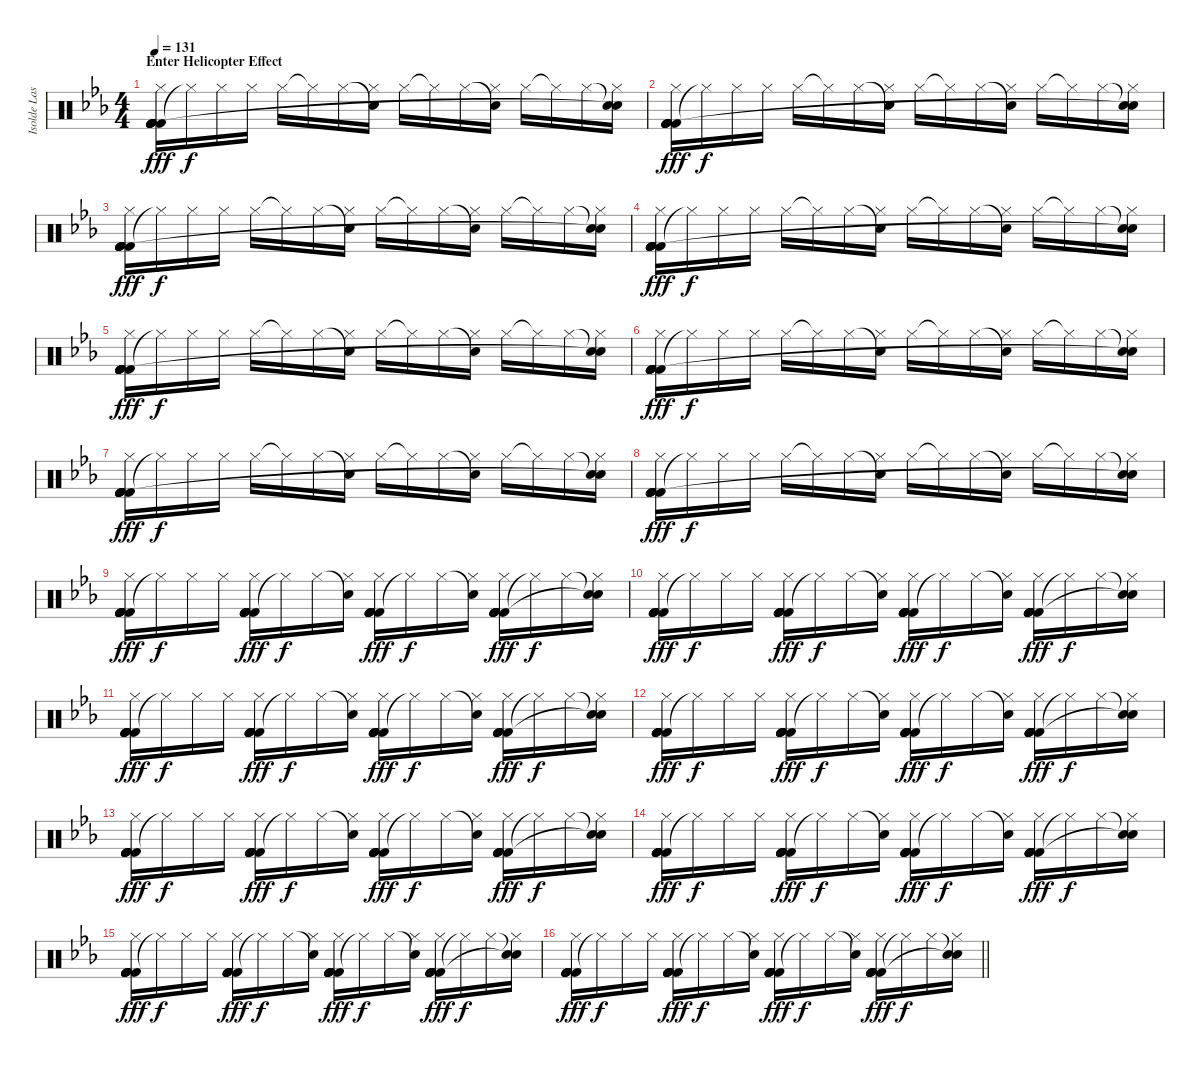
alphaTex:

\track ("Isolde Lasoen (Percussion)" "Isolde Las") {instrument percussion}
\staff {score}
\articulation defaults
\ts (4 4)
\section ("" "Enter Helicopter Effect")
\tempo 131
\clef neutral
\ks cminor
("Kick (hit) 2" "Kick (hit) 2" "Kick (hit) 2" "Kick (hit) 2" "Hi-Hat (closed)" "Kick (hit) 2").16{dy fff} "Hi-Hat (closed)"{t}.16{dy f} "Hi-Hat (closed)".16 "Hi-Hat (closed)".16 "Hi-Hat (closed)".16 "Hi-Hat (closed)"{t}.16 "Hi-Hat (closed)".16 ("Snare (hit)"{t} "Hi-Hat (closed)").16 "Hi-Hat (closed)".16 "Hi-Hat (closed)"{t}.16 "Hi-Hat (closed)".16 ("Snare (hit)"{t} "Hi-Hat (closed)").16 "Hi-Hat (closed)".16 "Hi-Hat (closed)"{t}.16 "Hi-Hat (closed)".16 ("Snare (hit)"{t} "Hi-Hat (closed)" "Snare (hit)"{t}).16 |
("Kick (hit) 2" "Kick (hit) 2" "Kick (hit) 2" "Kick (hit) 2" "Hi-Hat (closed)" "Kick (hit) 2").16{dy fff} "Hi-Hat (closed)"{t}.16{dy f} "Hi-Hat (closed)".16 "Hi-Hat (closed)".16 "Hi-Hat (closed)".16 "Hi-Hat (closed)"{t}.16 "Hi-Hat (closed)".16 ("Snare (hit)"{t} "Hi-Hat (closed)").16 "Hi-Hat (closed)".16 "Hi-Hat (closed)"{t}.16 "Hi-Hat (closed)".16 ("Snare (hit)"{t} "Hi-Hat (closed)").16 "Hi-Hat (closed)".16 "Hi-Hat (closed)"{t}.16 "Hi-Hat (closed)".16 ("Snare (hit)"{t} "Hi-Hat (closed)" "Snare (hit)"{t}).16 |
("Kick (hit) 2" "Kick (hit) 2" "Kick (hit) 2" "Kick (hit) 2" "Hi-Hat (closed)" "Kick (hit) 2").16{dy fff} "Hi-Hat (closed)"{t}.16{dy f} "Hi-Hat (closed)".16 "Hi-Hat (closed)".16 "Hi-Hat (closed)".16 "Hi-Hat (closed)"{t}.16 "Hi-Hat (closed)".16 ("Snare (hit)"{t} "Hi-Hat (closed)").16 "Hi-Hat (closed)".16 "Hi-Hat (closed)"{t}.16 "Hi-Hat (closed)".16 ("Snare (hit)"{t} "Hi-Hat (closed)").16 "Hi-Hat (closed)".16 "Hi-Hat (closed)"{t}.16 "Hi-Hat (closed)".16 ("Snare (hit)"{t} "Hi-Hat (closed)" "Snare (hit)"{t}).16 |
("Kick (hit) 2" "Kick (hit) 2" "Kick (hit) 2" "Kick (hit) 2" "Hi-Hat (closed)" "Kick (hit) 2").16{dy fff} "Hi-Hat (closed)"{t}.16{dy f} "Hi-Hat (closed)".16 "Hi-Hat (closed)".16 "Hi-Hat (closed)".16 "Hi-Hat (closed)"{t}.16 "Hi-Hat (closed)".16 ("Snare (hit)"{t} "Hi-Hat (closed)").16 "Hi-Hat (closed)".16 "Hi-Hat (closed)"{t}.16 "Hi-Hat (closed)".16 ("Snare (hit)"{t} "Hi-Hat (closed)").16 "Hi-Hat (closed)".16 "Hi-Hat (closed)"{t}.16 "Hi-Hat (closed)".16 ("Snare (hit)"{t} "Hi-Hat (closed)" "Snare (hit)"{t}).16 |
("Kick (hit) 2" "Kick (hit) 2" "Kick (hit) 2" "Kick (hit) 2" "Hi-Hat (closed)" "Kick (hit) 2").16{dy fff} "Hi-Hat (closed)"{t}.16{dy f} "Hi-Hat (closed)".16 "Hi-Hat (closed)".16 "Hi-Hat (closed)".16 "Hi-Hat (closed)"{t}.16 "Hi-Hat (closed)".16 ("Snare (hit)"{t} "Hi-Hat (closed)").16 "Hi-Hat (closed)".16 "Hi-Hat (closed)"{t}.16 "Hi-Hat (closed)".16 ("Snare (hit)"{t} "Hi-Hat (closed)").16 "Hi-Hat (closed)".16 "Hi-Hat (closed)"{t}.16 "Hi-Hat (closed)".16 ("Snare (hit)"{t} "Hi-Hat (closed)" "Snare (hit)"{t}).16 |
("Kick (hit) 2" "Kick (hit) 2" "Kick (hit) 2" "Kick (hit) 2" "Hi-Hat (closed)" "Kick (hit) 2").16{dy fff} "Hi-Hat (closed)"{t}.16{dy f} "Hi-Hat (closed)".16 "Hi-Hat (closed)".16 "Hi-Hat (closed)".16 "Hi-Hat (closed)"{t}.16 "Hi-Hat (closed)".16 ("Snare (hit)"{t} "Hi-Hat (closed)").16 "Hi-Hat (closed)".16 "Hi-Hat (closed)"{t}.16 "Hi-Hat (closed)".16 ("Snare (hit)"{t} "Hi-Hat (closed)").16 "Hi-Hat (closed)".16 "Hi-Hat (closed)"{t}.16 "Hi-Hat (closed)".16 ("Snare (hit)"{t} "Hi-Hat (closed)" "Snare (hit)"{t}).16 |
("Kick (hit) 2" "Kick (hit) 2" "Kick (hit) 2" "Kick (hit) 2" "Hi-Hat (closed)" "Kick (hit) 2").16{dy fff} "Hi-Hat (closed)"{t}.16{dy f} "Hi-Hat (closed)".16 "Hi-Hat (closed)".16 "Hi-Hat (closed)".16 "Hi-Hat (closed)"{t}.16 "Hi-Hat (closed)".16 ("Snare (hit)"{t} "Hi-Hat (closed)").16 "Hi-Hat (closed)".16 "Hi-Hat (closed)"{t}.16 "Hi-Hat (closed)".16 ("Snare (hit)"{t} "Hi-Hat (closed)").16 "Hi-Hat (closed)".16 "Hi-Hat (closed)"{t}.16 "Hi-Hat (closed)".16 ("Snare (hit)"{t} "Hi-Hat (closed)" "Snare (hit)"{t}).16 |
("Kick (hit) 2" "Kick (hit) 2" "Kick (hit) 2" "Kick (hit) 2" "Hi-Hat (closed)" "Kick (hit) 2").16{dy fff} "Hi-Hat (closed)"{t}.16{dy f} "Hi-Hat (closed)".16 "Hi-Hat (closed)".16 "Hi-Hat (closed)".16 "Hi-Hat (closed)"{t}.16 "Hi-Hat (closed)".16 ("Snare (hit)"{t} "Hi-Hat (closed)").16 "Hi-Hat (closed)".16 "Hi-Hat (closed)"{t}.16 "Hi-Hat (closed)".16 ("Snare (hit)"{t} "Hi-Hat (closed)").16 "Hi-Hat (closed)".16 "Hi-Hat (closed)"{t}.16 "Hi-Hat (closed)".16 ("Snare (hit)"{t} "Hi-Hat (closed)" "Snare (hit)"{t}).16 |
("Kick (hit) 2" "Kick (hit) 2" "Kick (hit) 2" "Kick (hit) 2" "Hi-Hat (closed)" "Kick (hit) 2").16{dy fff} "Hi-Hat (closed)"{t}.16{dy f} "Hi-Hat (closed)".16 "Hi-Hat (closed)".16 ("Kick (hit) 2" "Kick (hit) 2" "Kick (hit) 2" "Kick (hit) 2" "Hi-Hat (closed)" "Kick (hit) 2").16{dy fff} "Hi-Hat (closed)"{t}.16{dy f} "Hi-Hat (closed)".16 ("Snare (hit)"{t} "Hi-Hat (closed)").16 ("Kick (hit) 2" "Kick (hit) 2" "Kick (hit) 2" "Kick (hit) 2" "Hi-Hat (closed)" "Kick (hit) 2").16{dy fff} "Hi-Hat (closed)"{t}.16{dy f} "Hi-Hat (closed)".16 ("Snare (hit)"{t} "Hi-Hat (closed)").16 ("Kick (hit) 2" "Kick (hit) 2" "Kick (hit) 2" "Kick (hit) 2" "Hi-Hat (closed)" "Kick (hit) 2").16{dy fff} "Hi-Hat (closed)"{t}.16{dy f} "Hi-Hat (closed)".16 ("Snare (hit)"{t} "Hi-Hat (closed)" "Snare (hit)"{t}).16 |
("Kick (hit) 2" "Kick (hit) 2" "Kick (hit) 2" "Kick (hit) 2" "Hi-Hat (closed)" "Kick (hit) 2").16{dy fff} "Hi-Hat (closed)"{t}.16{dy f} "Hi-Hat (closed)".16 "Hi-Hat (closed)".16 ("Kick (hit) 2" "Kick (hit) 2" "Kick (hit) 2" "Kick (hit) 2" "Hi-Hat (closed)" "Kick (hit) 2").16{dy fff} "Hi-Hat (closed)"{t}.16{dy f} "Hi-Hat (closed)".16 ("Snare (hit)"{t} "Hi-Hat (closed)").16 ("Kick (hit) 2" "Kick (hit) 2" "Kick (hit) 2" "Kick (hit) 2" "Hi-Hat (closed)" "Kick (hit) 2").16{dy fff} "Hi-Hat (closed)"{t}.16{dy f} "Hi-Hat (closed)".16 ("Snare (hit)"{t} "Hi-Hat (closed)").16 ("Kick (hit) 2" "Kick (hit) 2" "Kick (hit) 2" "Kick (hit) 2" "Hi-Hat (closed)" "Kick (hit) 2").16{dy fff} "Hi-Hat (closed)"{t}.16{dy f} "Hi-Hat (closed)".16 ("Snare (hit)"{t} "Hi-Hat (closed)" "Snare (hit)"{t}).16 |
("Kick (hit) 2" "Kick (hit) 2" "Kick (hit) 2" "Kick (hit) 2" "Hi-Hat (closed)" "Kick (hit) 2").16{dy fff} "Hi-Hat (closed)"{t}.16{dy f} "Hi-Hat (closed)".16 "Hi-Hat (closed)".16 ("Kick (hit) 2" "Kick (hit) 2" "Kick (hit) 2" "Kick (hit) 2" "Hi-Hat (closed)" "Kick (hit) 2").16{dy fff} "Hi-Hat (closed)"{t}.16{dy f} "Hi-Hat (closed)".16 ("Snare (hit)"{t} "Hi-Hat (closed)").16 ("Kick (hit) 2" "Kick (hit) 2" "Kick (hit) 2" "Kick (hit) 2" "Hi-Hat (closed)" "Kick (hit) 2").16{dy fff} "Hi-Hat (closed)"{t}.16{dy f} "Hi-Hat (closed)".16 ("Snare (hit)"{t} "Hi-Hat (closed)").16 ("Kick (hit) 2" "Kick (hit) 2" "Kick (hit) 2" "Kick (hit) 2" "Hi-Hat (closed)" "Kick (hit) 2").16{dy fff} "Hi-Hat (closed)"{t}.16{dy f} "Hi-Hat (closed)".16 ("Snare (hit)"{t} "Hi-Hat (closed)" "Snare (hit)"{t}).16 |
("Kick (hit) 2" "Kick (hit) 2" "Kick (hit) 2" "Kick (hit) 2" "Hi-Hat (closed)" "Kick (hit) 2").16{dy fff} "Hi-Hat (closed)"{t}.16{dy f} "Hi-Hat (closed)".16 "Hi-Hat (closed)".16 ("Kick (hit) 2" "Kick (hit) 2" "Kick (hit) 2" "Kick (hit) 2" "Hi-Hat (closed)" "Kick (hit) 2").16{dy fff} "Hi-Hat (closed)"{t}.16{dy f} "Hi-Hat (closed)".16 ("Snare (hit)"{t} "Hi-Hat (closed)").16 ("Kick (hit) 2" "Kick (hit) 2" "Kick (hit) 2" "Kick (hit) 2" "Hi-Hat (closed)" "Kick (hit) 2").16{dy fff} "Hi-Hat (closed)"{t}.16{dy f} "Hi-Hat (closed)".16 ("Snare (hit)"{t} "Hi-Hat (closed)").16 ("Kick (hit) 2" "Kick (hit) 2" "Kick (hit) 2" "Kick (hit) 2" "Hi-Hat (closed)" "Kick (hit) 2").16{dy fff} "Hi-Hat (closed)"{t}.16{dy f} "Hi-Hat (closed)".16 ("Snare (hit)"{t} "Hi-Hat (closed)" "Snare (hit)"{t}).16 |
("Kick (hit) 2" "Kick (hit) 2" "Kick (hit) 2" "Kick (hit) 2" "Hi-Hat (closed)" "Kick (hit) 2").16{dy fff} "Hi-Hat (closed)"{t}.16{dy f} "Hi-Hat (closed)".16 "Hi-Hat (closed)".16 ("Kick (hit) 2" "Kick (hit) 2" "Kick (hit) 2" "Kick (hit) 2" "Hi-Hat (closed)" "Kick (hit) 2").16{dy fff} "Hi-Hat (closed)"{t}.16{dy f} "Hi-Hat (closed)".16 ("Snare (hit)"{t} "Hi-Hat (closed)").16 ("Kick (hit) 2" "Kick (hit) 2" "Kick (hit) 2" "Kick (hit) 2" "Hi-Hat (closed)" "Kick (hit) 2").16{dy fff} "Hi-Hat (closed)"{t}.16{dy f} "Hi-Hat (closed)".16 ("Snare (hit)"{t} "Hi-Hat (closed)").16 ("Kick (hit) 2" "Kick (hit) 2" "Kick (hit) 2" "Kick (hit) 2" "Hi-Hat (closed)" "Kick (hit) 2").16{dy fff} "Hi-Hat (closed)"{t}.16{dy f} "Hi-Hat (closed)".16 ("Snare (hit)"{t} "Hi-Hat (closed)" "Snare (hit)"{t}).16 |
("Kick (hit) 2" "Kick (hit) 2" "Kick (hit) 2" "Kick (hit) 2" "Hi-Hat (closed)" "Kick (hit) 2").16{dy fff} "Hi-Hat (closed)"{t}.16{dy f} "Hi-Hat (closed)".16 "Hi-Hat (closed)".16 ("Kick (hit) 2" "Kick (hit) 2" "Kick (hit) 2" "Kick (hit) 2" "Hi-Hat (closed)" "Kick (hit) 2").16{dy fff} "Hi-Hat (closed)"{t}.16{dy f} "Hi-Hat (closed)".16 ("Snare (hit)"{t} "Hi-Hat (closed)").16 ("Kick (hit) 2" "Kick (hit) 2" "Kick (hit) 2" "Kick (hit) 2" "Hi-Hat (closed)" "Kick (hit) 2").16{dy fff} "Hi-Hat (closed)"{t}.16{dy f} "Hi-Hat (closed)".16 ("Snare (hit)"{t} "Hi-Hat (closed)").16 ("Kick (hit) 2" "Kick (hit) 2" "Kick (hit) 2" "Kick (hit) 2" "Hi-Hat (closed)" "Kick (hit) 2").16{dy fff} "Hi-Hat (closed)"{t}.16{dy f} "Hi-Hat (closed)".16 ("Snare (hit)"{t} "Hi-Hat (closed)" "Snare (hit)"{t}).16 |
("Kick (hit) 2" "Kick (hit) 2" "Kick (hit) 2" "Kick (hit) 2" "Hi-Hat (closed)" "Kick (hit) 2").16{dy fff} "Hi-Hat (closed)"{t}.16{dy f} "Hi-Hat (closed)".16 "Hi-Hat (closed)".16 ("Kick (hit) 2" "Kick (hit) 2" "Kick (hit) 2" "Kick (hit) 2" "Hi-Hat (closed)" "Kick (hit) 2").16{dy fff} "Hi-Hat (closed)"{t}.16{dy f} "Hi-Hat (closed)".16 ("Snare (hit)"{t} "Hi-Hat (closed)").16 ("Kick (hit) 2" "Kick (hit) 2" "Kick (hit) 2" "Kick (hit) 2" "Hi-Hat (closed)" "Kick (hit) 2").16{dy fff} "Hi-Hat (closed)"{t}.16{dy f} "Hi-Hat (closed)".16 ("Snare (hit)"{t} "Hi-Hat (closed)").16 ("Kick (hit) 2" "Kick (hit) 2" "Kick (hit) 2" "Kick (hit) 2" "Hi-Hat (closed)" "Kick (hit) 2").16{dy fff} "Hi-Hat (closed)"{t}.16{dy f} "Hi-Hat (closed)".16 ("Snare (hit)"{t} "Hi-Hat (closed)" "Snare (hit)"{t}).16 |
\barLineRight lightlight
("Kick (hit) 2" "Kick (hit) 2" "Kick (hit) 2" "Kick (hit) 2" "Hi-Hat (closed)" "Kick (hit) 2").16{dy fff} "Hi-Hat (closed)"{t}.16{dy f} "Hi-Hat (closed)".16 "Hi-Hat (closed)".16 ("Kick (hit) 2" "Kick (hit) 2" "Kick (hit) 2" "Kick (hit) 2" "Hi-Hat (closed)" "Kick (hit) 2").16{dy fff} "Hi-Hat (closed)"{t}.16{dy f} "Hi-Hat (closed)".16 ("Snare (hit)"{t} "Hi-Hat (closed)").16 ("Kick (hit) 2" "Kick (hit) 2" "Kick (hit) 2" "Kick (hit) 2" "Hi-Hat (closed)" "Kick (hit) 2").16{dy fff} "Hi-Hat (closed)"{t}.16{dy f} "Hi-Hat (closed)".16 ("Snare (hit)"{t} "Hi-Hat (closed)").16 ("Kick (hit) 2" "Kick (hit) 2" "Kick (hit) 2" "Kick (hit) 2" "Hi-Hat (closed)" "Kick (hit) 2").16{dy fff} "Hi-Hat (closed)"{t}.16{dy f} "Hi-Hat (closed)".16 ("Snare (hit)"{t} "Hi-Hat (closed)" "Snare (hit)"{t}).16
